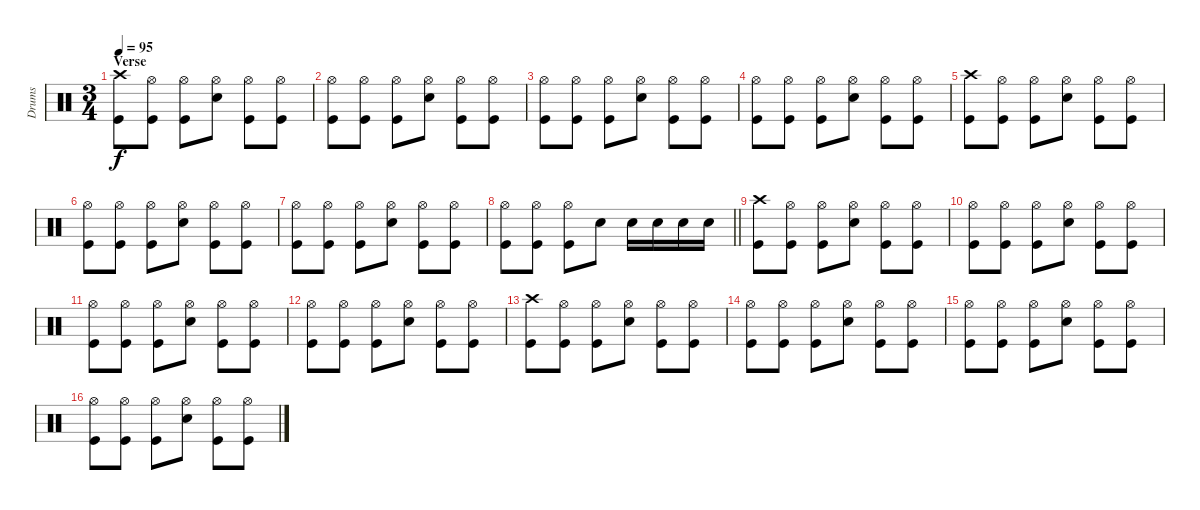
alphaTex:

\track ("Drums" "Drums") {instrument percussion}
\staff {score}
\articulation defaults
\ts (3 4)
\section ("" "Verse ")
\tempo 95
\clef neutral
\ks c
("Crash high (hit)" "Kick (hit)").8{dy f} ("Hi-Hat (open)" "Kick (hit)").8 ("Hi-Hat (open)" "Kick (hit)").8 ("Hi-Hat (open)" "Electric Snare (hit)").8 ("Hi-Hat (open)" "Kick (hit)").8 ("Hi-Hat (open)" "Kick (hit)").8 |
("Hi-Hat (open)" "Kick (hit)").8 ("Hi-Hat (open)" "Kick (hit)").8 ("Hi-Hat (open)" "Kick (hit)").8 ("Hi-Hat (open)" "Electric Snare (hit)").8 ("Hi-Hat (open)" "Kick (hit)").8 ("Hi-Hat (open)" "Kick (hit)").8 |
("Hi-Hat (open)" "Kick (hit)").8 ("Hi-Hat (open)" "Kick (hit)").8 ("Hi-Hat (open)" "Kick (hit)").8 ("Hi-Hat (open)" "Electric Snare (hit)").8 ("Hi-Hat (open)" "Kick (hit)").8 ("Hi-Hat (open)" "Kick (hit)").8 |
("Hi-Hat (open)" "Kick (hit)").8 ("Hi-Hat (open)" "Kick (hit)").8 ("Hi-Hat (open)" "Kick (hit)").8 ("Hi-Hat (open)" "Electric Snare (hit)").8 ("Hi-Hat (open)" "Kick (hit)").8 ("Hi-Hat (open)" "Kick (hit)").8 |
("Crash high (hit)" "Kick (hit)").8 ("Hi-Hat (open)" "Kick (hit)").8 ("Hi-Hat (open)" "Kick (hit)").8 ("Hi-Hat (open)" "Electric Snare (hit)").8 ("Hi-Hat (open)" "Kick (hit)").8 ("Hi-Hat (open)" "Kick (hit)").8 |
("Hi-Hat (open)" "Kick (hit)").8 ("Hi-Hat (open)" "Kick (hit)").8 ("Hi-Hat (open)" "Kick (hit)").8 ("Hi-Hat (open)" "Electric Snare (hit)").8 ("Hi-Hat (open)" "Kick (hit)").8 ("Hi-Hat (open)" "Kick (hit)").8 |
("Hi-Hat (open)" "Kick (hit)").8 ("Hi-Hat (open)" "Kick (hit)").8 ("Hi-Hat (open)" "Kick (hit)").8 ("Hi-Hat (open)" "Electric Snare (hit)").8 ("Hi-Hat (open)" "Kick (hit)").8 ("Hi-Hat (open)" "Kick (hit)").8 |
\barLineRight lightlight
("Hi-Hat (open)" "Kick (hit)").8 ("Hi-Hat (open)" "Kick (hit)").8 ("Hi-Hat (open)" "Kick (hit)").8 "Electric Snare (hit)".8 "Electric Snare (hit)".16 "Electric Snare (hit)".16 "Electric Snare (hit)".16 "Electric Snare (hit)".16 |
\section ("" "")
("Crash high (hit)" "Kick (hit)").8 ("Hi-Hat (open)" "Kick (hit)").8 ("Hi-Hat (open)" "Kick (hit)").8 ("Hi-Hat (open)" "Electric Snare (hit)").8 ("Hi-Hat (open)" "Kick (hit)").8 ("Hi-Hat (open)" "Kick (hit)").8 |
("Hi-Hat (open)" "Kick (hit)").8 ("Hi-Hat (open)" "Kick (hit)").8 ("Hi-Hat (open)" "Kick (hit)").8 ("Hi-Hat (open)" "Electric Snare (hit)").8 ("Hi-Hat (open)" "Kick (hit)").8 ("Hi-Hat (open)" "Kick (hit)").8 |
("Hi-Hat (open)" "Kick (hit)").8 ("Hi-Hat (open)" "Kick (hit)").8 ("Hi-Hat (open)" "Kick (hit)").8 ("Hi-Hat (open)" "Electric Snare (hit)").8 ("Hi-Hat (open)" "Kick (hit)").8 ("Hi-Hat (open)" "Kick (hit)").8 |
("Hi-Hat (open)" "Kick (hit)").8 ("Hi-Hat (open)" "Kick (hit)").8 ("Hi-Hat (open)" "Kick (hit)").8 ("Hi-Hat (open)" "Electric Snare (hit)").8 ("Hi-Hat (open)" "Kick (hit)").8 ("Hi-Hat (open)" "Kick (hit)").8 |
("Crash high (hit)" "Kick (hit)").8 ("Hi-Hat (open)" "Kick (hit)").8 ("Hi-Hat (open)" "Kick (hit)").8 ("Hi-Hat (open)" "Electric Snare (hit)").8 ("Hi-Hat (open)" "Kick (hit)").8 ("Hi-Hat (open)" "Kick (hit)").8 |
("Hi-Hat (open)" "Kick (hit)").8 ("Hi-Hat (open)" "Kick (hit)").8 ("Hi-Hat (open)" "Kick (hit)").8 ("Hi-Hat (open)" "Electric Snare (hit)").8 ("Hi-Hat (open)" "Kick (hit)").8 ("Hi-Hat (open)" "Kick (hit)").8 |
("Hi-Hat (open)" "Kick (hit)").8 ("Hi-Hat (open)" "Kick (hit)").8 ("Hi-Hat (open)" "Kick (hit)").8 ("Hi-Hat (open)" "Electric Snare (hit)").8 ("Hi-Hat (open)" "Kick (hit)").8 ("Hi-Hat (open)" "Kick (hit)").8 |
("Hi-Hat (open)" "Kick (hit)").8 ("Hi-Hat (open)" "Kick (hit)").8 ("Hi-Hat (open)" "Kick (hit)").8 ("Hi-Hat (open)" "Electric Snare (hit)").8 ("Hi-Hat (open)" "Kick (hit)").8 ("Hi-Hat (open)" "Kick (hit)").8
